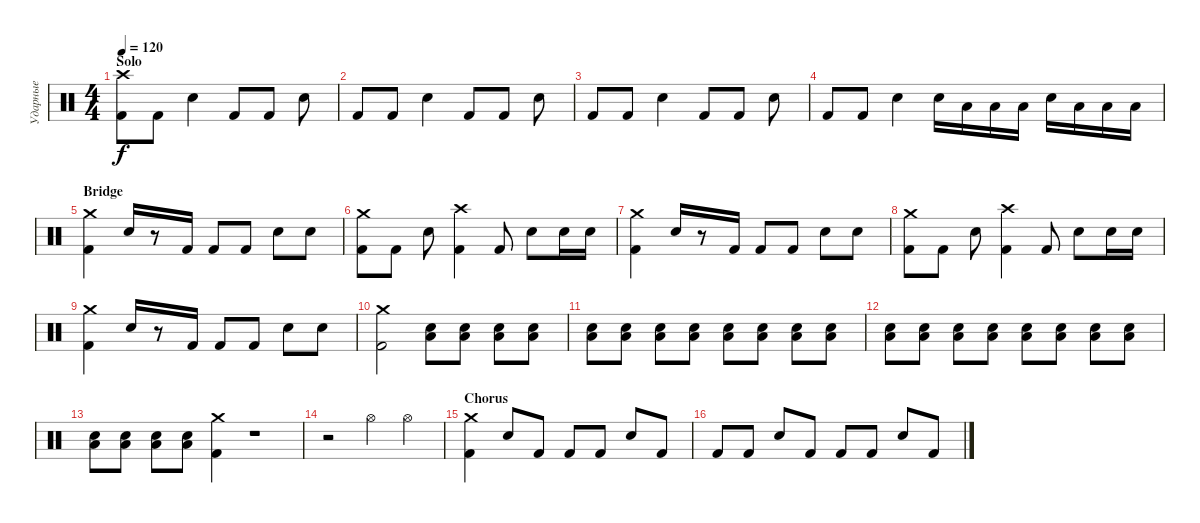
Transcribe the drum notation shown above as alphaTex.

\track ("Ударные" "Ударные") {instrument percussion}
\staff {score}
\articulation defaults
\ts (4 4)
\section ("" "Solo")
\tempo 120
\clef neutral
\ks c
("Kick (hit) 2" "Crash high (hit)").8{dy f} "Kick (hit) 2".8 "Electric Snare (hit)".4 "Kick (hit) 2".8 "Kick (hit) 2".8 "Electric Snare (hit)".8 |
"Kick (hit) 2".8 "Kick (hit) 2".8 "Electric Snare (hit)".4 "Kick (hit) 2".8 "Kick (hit) 2".8 "Electric Snare (hit)".8 |
"Kick (hit) 2".8 "Kick (hit) 2".8 "Electric Snare (hit)".4 "Kick (hit) 2".8 "Kick (hit) 2".8 "Electric Snare (hit)".8 |
"Kick (hit) 2".8 "Kick (hit) 2".8 "Electric Snare (hit)".4 "Electric Snare (hit)".16 "Low Tom (hit)".16 "Low Tom (hit)".16 "Low Tom (hit)".16 "Electric Snare (hit)".16 "Low Tom (hit)".16 "Low Tom (hit)".16 "Low Tom (hit)".16 |
\section ("" "Bridge")
("Kick (hit) 2" "Crash medium (hit)").4 "Electric Snare (hit)".16 r.8 "Kick (hit) 2".16 "Kick (hit) 2".8 "Kick (hit) 2".8 "Electric Snare (hit)".8 "Electric Snare (hit)".8 |
("Kick (hit) 2" "Crash medium (hit)").8 "Kick (hit) 2".8 "Electric Snare (hit)".8 ("Kick (hit) 2" "Crash high (hit)").4 "Kick (hit) 2".8 "Electric Snare (hit)".8 "Electric Snare (hit)".16 "Electric Snare (hit)".16 |
("Kick (hit) 2" "Crash medium (hit)").4 "Electric Snare (hit)".16 r.8 "Kick (hit) 2".16 "Kick (hit) 2".8 "Kick (hit) 2".8 "Electric Snare (hit)".8 "Electric Snare (hit)".8 |
("Kick (hit) 2" "Crash medium (hit)").8 "Kick (hit) 2".8 "Electric Snare (hit)".8 ("Kick (hit) 2" "Crash high (hit)").4 "Kick (hit) 2".8 "Electric Snare (hit)".8 "Electric Snare (hit)".16 "Electric Snare (hit)".16 |
("Kick (hit) 2" "Crash medium (hit)").4 "Electric Snare (hit)".16 r.8 "Kick (hit) 2".16 "Kick (hit) 2".8 "Kick (hit) 2".8 "Electric Snare (hit)".8 "Electric Snare (hit)".8 |
("Kick (hit) 2" "Crash medium (hit)").2 ("Electric Snare (hit)" "Low Tom (hit)").8 ("Electric Snare (hit)" "Low Tom (hit)").8 ("Electric Snare (hit)" "Low Tom (hit)").8 ("Electric Snare (hit)" "Low Tom (hit)").8 |
("Electric Snare (hit)" "Low Tom (hit)").8 ("Electric Snare (hit)" "Low Tom (hit)").8 ("Electric Snare (hit)" "Low Tom (hit)").8 ("Electric Snare (hit)" "Low Tom (hit)").8 ("Electric Snare (hit)" "Low Tom (hit)").8 ("Electric Snare (hit)" "Low Tom (hit)").8 ("Electric Snare (hit)" "Low Tom (hit)").8 ("Electric Snare (hit)" "Low Tom (hit)").8 |
("Electric Snare (hit)" "Low Tom (hit)").8 ("Electric Snare (hit)" "Low Tom (hit)").8 ("Electric Snare (hit)" "Low Tom (hit)").8 ("Electric Snare (hit)" "Low Tom (hit)").8 ("Electric Snare (hit)" "Low Tom (hit)").8 ("Electric Snare (hit)" "Low Tom (hit)").8 ("Electric Snare (hit)" "Low Tom (hit)").8 ("Electric Snare (hit)" "Low Tom (hit)").8 |
("Electric Snare (hit)" "Low Tom (hit)").8 ("Electric Snare (hit)" "Low Tom (hit)").8 ("Electric Snare (hit)" "Low Tom (hit)").8 ("Electric Snare (hit)" "Low Tom (hit)").8 ("Kick (hit) 2" "Crash medium (hit)").4 r.1 |
r.2 "Hi-Hat (open)".4 "Hi-Hat (open)".4 |
\section ("" "Chorus")
("Kick (hit) 2" "Crash medium (hit)").4 "Electric Snare (hit)".8 "Kick (hit) 2".8 "Kick (hit) 2".8 "Kick (hit) 2".8 "Electric Snare (hit)".8 "Kick (hit) 2".8 |
"Kick (hit) 2".8 "Kick (hit) 2".8 "Electric Snare (hit)".8 "Kick (hit) 2".8 "Kick (hit) 2".8 "Kick (hit) 2".8 "Electric Snare (hit)".8 "Kick (hit) 2".8
